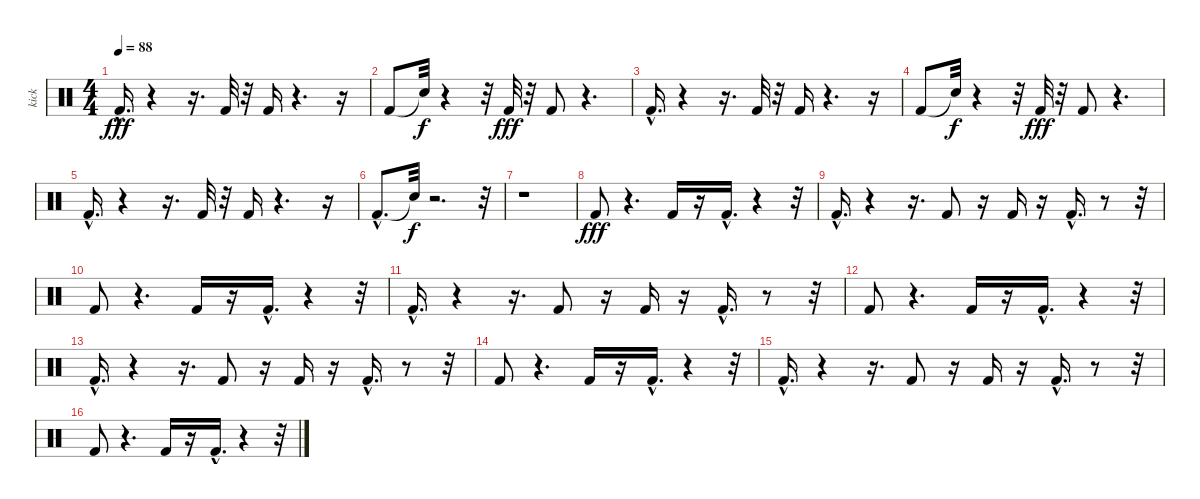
\track ("kick" "kick") {instrument percussion}
\staff {score}
\articulation defaults
\ts (4 4)
\tempo 88
\clef neutral
\ks c "Kick (hit) 2"{hac}.16{d dy fff}
r.4 r.16{d} "Kick (hit) 2".32 r.32 "Kick (hit) 2".16 r.4{d} r.16 |
"Kick (hit) 2".8 "Snare (hit)"{t}.32{dy f} r.4 r.32 "Kick (hit) 2".32{dy fff} r.32 "Kick (hit) 2".8 r.4{d} |
"Kick (hit) 2"{hac}.16{d} r.4 r.16{d} "Kick (hit) 2".32 r.32 "Kick (hit) 2".16 r.4{d} r.16 |
"Kick (hit) 2".8 "Snare (hit)"{t}.32{dy f} r.4 r.32 "Kick (hit) 2".32{dy fff} r.32 "Kick (hit) 2".8 r.4{d} |
"Kick (hit) 2"{hac}.16{d} r.4 r.16{d} "Kick (hit) 2".32 r.32 "Kick (hit) 2".16 r.4{d} r.16 |
"Kick (hit) 2"{hac}.8{d} "Snare (hit)"{t}.32{dy f} r.2{d} r.32 |
r.1 |
"Kick (hit) 2".8{dy fff} r.4{d} "Kick (hit) 2".16 r.16 "Kick (hit) 2"{hac}.16{d} r.4 r.32 |
"Kick (hit) 2"{hac}.16{d} r.4 r.16{d} "Kick (hit) 2".8 r.16 "Kick (hit) 2".16 r.16 "Kick (hit) 2"{hac}.16{d} r.8 r.32 |
"Kick (hit) 2".8 r.4{d} "Kick (hit) 2".16 r.16 "Kick (hit) 2"{hac}.16{d} r.4 r.32 |
"Kick (hit) 2"{hac}.16{d} r.4 r.16{d} "Kick (hit) 2".8 r.16 "Kick (hit) 2".16 r.16 "Kick (hit) 2"{hac}.16{d} r.8 r.32 |
"Kick (hit) 2".8 r.4{d} "Kick (hit) 2".16 r.16 "Kick (hit) 2"{hac}.16{d} r.4 r.32 |
"Kick (hit) 2"{hac}.16{d} r.4 r.16{d} "Kick (hit) 2".8 r.16 "Kick (hit) 2".16 r.16 "Kick (hit) 2"{hac}.16{d} r.8 r.32 |
"Kick (hit) 2".8 r.4{d} "Kick (hit) 2".16 r.16 "Kick (hit) 2"{hac}.16{d} r.4 r.32 |
"Kick (hit) 2"{hac}.16{d} r.4 r.16{d} "Kick (hit) 2".8 r.16 "Kick (hit) 2".16 r.16 "Kick (hit) 2"{hac}.16{d} r.8 r.32 |
"Kick (hit) 2".8 r.4{d} "Kick (hit) 2".16 r.16 "Kick (hit) 2"{hac}.16{d} r.4 r.32
